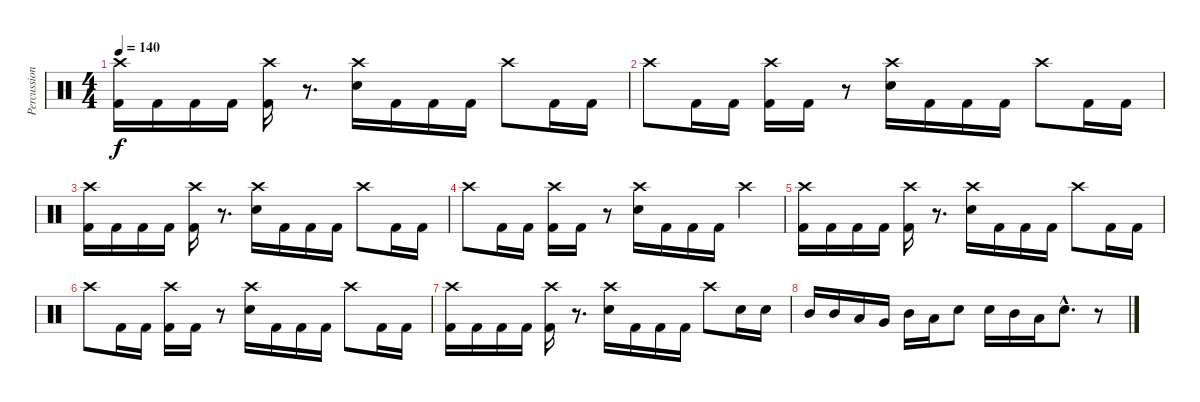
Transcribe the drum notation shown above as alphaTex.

\track ("Percussion" "Percussion") {instrument percussion}
\staff {score}
\articulation defaults
\ts (4 4)
\tempo 140
\clef neutral
\ks c
("Crash high (hit)" "Kick (hit) 2").16{dy f} "Kick (hit) 2".16 "Kick (hit) 2".16 "Kick (hit) 2".16 ("Crash high (hit)" "Kick (hit) 2").16 r.8{d} ("Crash high (hit)" "Electric Snare (hit)").16 "Kick (hit) 2".16 "Kick (hit) 2".16 "Kick (hit) 2".16 "Crash high (hit)".8 "Kick (hit) 2".16 "Kick (hit) 2".16 |
"Crash high (hit)".8 "Kick (hit) 2".16 "Kick (hit) 2".16 ("Crash high (hit)" "Kick (hit) 2").16 "Kick (hit) 2".16 r.8 ("Crash high (hit)" "Electric Snare (hit)").16 "Kick (hit) 2".16 "Kick (hit) 2".16 "Kick (hit) 2".16 "Crash high (hit)".8 "Kick (hit) 2".16 "Kick (hit) 2".16 |
("Crash high (hit)" "Kick (hit) 2").16 "Kick (hit) 2".16 "Kick (hit) 2".16 "Kick (hit) 2".16 ("Crash high (hit)" "Kick (hit) 2").16 r.8{d} ("Crash high (hit)" "Electric Snare (hit)").16 "Kick (hit) 2".16 "Kick (hit) 2".16 "Kick (hit) 2".16 "Crash high (hit)".8 "Kick (hit) 2".16 "Kick (hit) 2".16 |
"Crash high (hit)".8 "Kick (hit) 2".16 "Kick (hit) 2".16 ("Crash high (hit)" "Kick (hit) 2").16 "Kick (hit) 2".16 r.8 ("Crash high (hit)" "Electric Snare (hit)").16 "Kick (hit) 2".16 "Kick (hit) 2".16 "Kick (hit) 2".16 "Crash high (hit)".4 |
("Crash high (hit)" "Kick (hit) 2").16 "Kick (hit) 2".16 "Kick (hit) 2".16 "Kick (hit) 2".16 ("Crash high (hit)" "Kick (hit) 2").16 r.8{d} ("Crash high (hit)" "Electric Snare (hit)").16 "Kick (hit) 2".16 "Kick (hit) 2".16 "Kick (hit) 2".16 "Crash high (hit)".8 "Kick (hit) 2".16 "Kick (hit) 2".16 |
"Crash high (hit)".8 "Kick (hit) 2".16 "Kick (hit) 2".16 ("Crash high (hit)" "Kick (hit) 2").16 "Kick (hit) 2".16 r.8 ("Crash high (hit)" "Electric Snare (hit)").16 "Kick (hit) 2".16 "Kick (hit) 2".16 "Kick (hit) 2".16 "Crash high (hit)".8 "Kick (hit) 2".16 "Kick (hit) 2".16 |
("Crash high (hit)" "Kick (hit) 2").16 "Kick (hit) 2".16 "Kick (hit) 2".16 "Kick (hit) 2".16 ("Crash high (hit)" "Kick (hit) 2").16 r.8{d} ("Crash high (hit)" "Electric Snare (hit)").16 "Kick (hit) 2".16 "Kick (hit) 2".16 "Kick (hit) 2".16 "Crash high (hit)".8 "Electric Snare (hit)".16 "Electric Snare (hit)".16 |
"Mid Tom (hit)".16 "Mid Tom (hit)".16 "Low Tom (hit)".16 "Very Low Tom (hit)".16 "Mid Tom (hit)".16 "Low Tom (hit)".16 "Electric Snare (hit)".8 "Electric Snare (hit)".16 "Mid Tom (hit)".16 "Low Tom (hit)".16 "Electric Snare (hit)"{hac}.8{d} r.8
